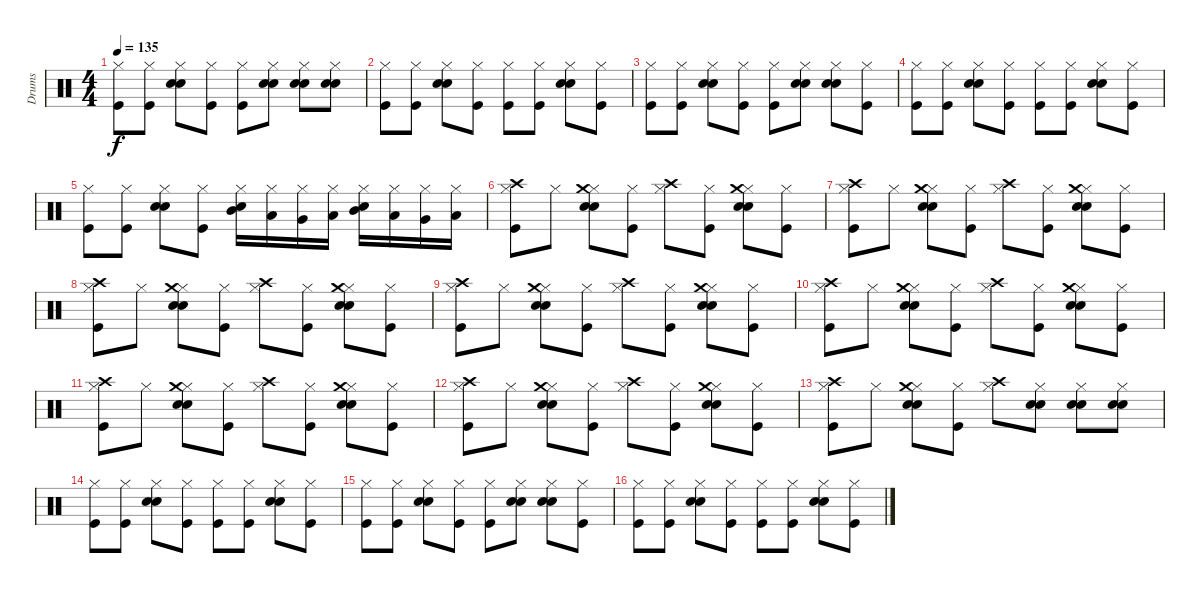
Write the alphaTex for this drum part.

\track ("Drums" "Drums") {instrument percussion}
\staff {score}
\articulation defaults
\ts (4 4)
\tempo 135
\clef neutral
\ks c
("Hi-Hat (closed)" "Kick (hit)").8{dy f} ("Hi-Hat (closed)" "Kick (hit)").8 ("Hi-Hat (closed)" "Hand Clap (hit)" "Electric Snare (hit)").8 ("Hi-Hat (closed)" "Kick (hit)").8 ("Hi-Hat (closed)" "Kick (hit)").8 ("Hi-Hat (closed)" "Hand Clap (hit)" "Snare (hit) 2").8 ("Hi-Hat (closed)" "Hand Clap (hit)" "Snare (hit) 2").8 ("Hi-Hat (closed)" "Hand Clap (hit)" "Snare (hit) 2").8 |
("Hi-Hat (closed)" "Kick (hit)").8 ("Hi-Hat (closed)" "Kick (hit)").8 ("Hi-Hat (closed)" "Hand Clap (hit)" "Electric Snare (hit)").8 ("Hi-Hat (closed)" "Kick (hit)").8 ("Hi-Hat (closed)" "Kick (hit)").8 ("Hi-Hat (closed)" "Kick (hit)").8 ("Hi-Hat (closed)" "Hand Clap (hit)" "Electric Snare (hit)").8 ("Hi-Hat (closed)" "Kick (hit)").8 |
("Hi-Hat (closed)" "Kick (hit)").8 ("Hi-Hat (closed)" "Kick (hit)").8 ("Hi-Hat (closed)" "Hand Clap (hit)" "Electric Snare (hit)").8 ("Hi-Hat (closed)" "Kick (hit)").8 ("Hi-Hat (closed)" "Kick (hit)").8 ("Hi-Hat (closed)" "Hand Clap (hit)" "Snare (hit) 2").8 ("Hi-Hat (closed)" "Hand Clap (hit)" "Snare (hit) 2").8 ("Hi-Hat (closed)" "Kick (hit)").8 |
("Hi-Hat (closed)" "Kick (hit)").8 ("Hi-Hat (closed)" "Kick (hit)").8 ("Hi-Hat (closed)" "Hand Clap (hit)" "Electric Snare (hit)").8 ("Hi-Hat (closed)" "Kick (hit)").8 ("Hi-Hat (closed)" "Kick (hit)").8 ("Hi-Hat (closed)" "Kick (hit)").8 ("Hi-Hat (closed)" "Hand Clap (hit)" "Electric Snare (hit)").8 ("Hi-Hat (closed)" "Kick (hit)").8 |
("Hi-Hat (closed)" "Kick (hit)").8 ("Hi-Hat (closed)" "Kick (hit)").8 ("Hi-Hat (closed)" "Hand Clap (hit)" "Electric Snare (hit)").8 ("Hi-Hat (closed)" "Kick (hit)").8 ("Hi-Hat (closed)" "Mid Tom (hit)" "Snare (hit) 2").16 ("Hi-Hat (closed)" "Low Tom (hit)").16 ("Hi-Hat (closed)" "Very Low Tom (hit)").16 ("Hi-Hat (closed)" "Low Floor Tom (hit)").16 ("Hi-Hat (closed)" "Mid Tom (hit)" "Snare (hit) 2").16 ("Hi-Hat (closed)" "Low Tom (hit)").16 ("Hi-Hat (closed)" "Very Low Tom (hit)").16 ("Hi-Hat (closed)" "Low Floor Tom (hit)").16 |
("Hi-Hat (closed)" "Crash high (hit)" "Kick (hit)").8 "Hi-Hat (closed)".8 ("Hi-Hat (closed)" "Crash medium (hit)" "Hand Clap (hit)" "Snare (hit) 2").8 ("Hi-Hat (closed)" "Kick (hit)").8 ("Hi-Hat (closed)" "Crash high (hit)").8 ("Hi-Hat (closed)" "Kick (hit)").8 ("Hi-Hat (closed)" "Crash medium (hit)" "Hand Clap (hit)" "Snare (hit) 2").8 ("Hi-Hat (closed)" "Kick (hit)").8 |
("Hi-Hat (closed)" "Crash high (hit)" "Kick (hit)").8 "Hi-Hat (closed)".8 ("Hi-Hat (closed)" "Crash medium (hit)" "Hand Clap (hit)" "Snare (hit) 2").8 ("Hi-Hat (closed)" "Kick (hit)").8 ("Hi-Hat (closed)" "Crash high (hit)").8 ("Hi-Hat (closed)" "Kick (hit)").8 ("Hi-Hat (closed)" "Crash medium (hit)" "Hand Clap (hit)" "Snare (hit) 2").8 ("Hi-Hat (closed)" "Kick (hit)").8 |
("Hi-Hat (closed)" "Crash high (hit)" "Kick (hit)").8 "Hi-Hat (closed)".8 ("Hi-Hat (closed)" "Crash medium (hit)" "Hand Clap (hit)" "Snare (hit) 2").8 ("Hi-Hat (closed)" "Kick (hit)").8 ("Hi-Hat (closed)" "Crash high (hit)").8 ("Hi-Hat (closed)" "Kick (hit)").8 ("Hi-Hat (closed)" "Crash medium (hit)" "Hand Clap (hit)" "Snare (hit) 2").8 ("Hi-Hat (closed)" "Kick (hit)").8 |
("Hi-Hat (closed)" "Crash high (hit)" "Kick (hit)").8 "Hi-Hat (closed)".8 ("Hi-Hat (closed)" "Crash medium (hit)" "Hand Clap (hit)" "Snare (hit) 2").8 ("Hi-Hat (closed)" "Kick (hit)").8 ("Hi-Hat (closed)" "Crash high (hit)").8 ("Hi-Hat (closed)" "Kick (hit)").8 ("Hi-Hat (closed)" "Crash medium (hit)" "Hand Clap (hit)" "Snare (hit) 2").8 ("Hi-Hat (closed)" "Kick (hit)").8 |
("Hi-Hat (closed)" "Crash high (hit)" "Kick (hit)").8 "Hi-Hat (closed)".8 ("Hi-Hat (closed)" "Crash medium (hit)" "Hand Clap (hit)" "Snare (hit) 2").8 ("Hi-Hat (closed)" "Kick (hit)").8 ("Hi-Hat (closed)" "Crash high (hit)").8 ("Hi-Hat (closed)" "Kick (hit)").8 ("Hi-Hat (closed)" "Crash medium (hit)" "Hand Clap (hit)" "Snare (hit) 2").8 ("Hi-Hat (closed)" "Kick (hit)").8 |
("Hi-Hat (closed)" "Crash high (hit)" "Kick (hit)").8 "Hi-Hat (closed)".8 ("Hi-Hat (closed)" "Crash medium (hit)" "Hand Clap (hit)" "Snare (hit) 2").8 ("Hi-Hat (closed)" "Kick (hit)").8 ("Hi-Hat (closed)" "Crash high (hit)").8 ("Hi-Hat (closed)" "Kick (hit)").8 ("Hi-Hat (closed)" "Crash medium (hit)" "Hand Clap (hit)" "Snare (hit) 2").8 ("Hi-Hat (closed)" "Kick (hit)").8 |
("Hi-Hat (closed)" "Crash high (hit)" "Kick (hit)").8 "Hi-Hat (closed)".8 ("Hi-Hat (closed)" "Crash medium (hit)" "Hand Clap (hit)" "Snare (hit) 2").8 ("Hi-Hat (closed)" "Kick (hit)").8 ("Hi-Hat (closed)" "Crash high (hit)").8 ("Hi-Hat (closed)" "Kick (hit)").8 ("Hi-Hat (closed)" "Crash medium (hit)" "Hand Clap (hit)" "Snare (hit) 2").8 ("Hi-Hat (closed)" "Kick (hit)").8 |
("Hi-Hat (closed)" "Crash high (hit)" "Kick (hit)").8 "Hi-Hat (closed)".8 ("Hi-Hat (closed)" "Crash medium (hit)" "Hand Clap (hit)" "Snare (hit) 2").8 ("Hi-Hat (closed)" "Kick (hit)").8 ("Hi-Hat (closed)" "Crash high (hit)").8 ("Hi-Hat (closed)" "Hand Clap (hit)" "Snare (hit) 2").8 ("Hi-Hat (closed)" "Hand Clap (hit)" "Snare (hit) 2").8 ("Hi-Hat (closed)" "Hand Clap (hit)" "Snare (hit) 2").8 |
("Hi-Hat (closed)" "Kick (hit)").8 ("Hi-Hat (closed)" "Kick (hit)").8 ("Hi-Hat (closed)" "Hand Clap (hit)" "Electric Snare (hit)").8 ("Hi-Hat (closed)" "Kick (hit)").8 ("Hi-Hat (closed)" "Kick (hit)").8 ("Hi-Hat (closed)" "Kick (hit)").8 ("Hi-Hat (closed)" "Hand Clap (hit)" "Electric Snare (hit)").8 ("Hi-Hat (closed)" "Kick (hit)").8 |
("Hi-Hat (closed)" "Kick (hit)").8 ("Hi-Hat (closed)" "Kick (hit)").8 ("Hi-Hat (closed)" "Hand Clap (hit)" "Electric Snare (hit)").8 ("Hi-Hat (closed)" "Kick (hit)").8 ("Hi-Hat (closed)" "Kick (hit)").8 ("Hi-Hat (closed)" "Hand Clap (hit)" "Snare (hit) 2").8 ("Hi-Hat (closed)" "Hand Clap (hit)" "Snare (hit) 2").8 ("Hi-Hat (closed)" "Kick (hit)").8 |
("Hi-Hat (closed)" "Kick (hit)").8 ("Hi-Hat (closed)" "Kick (hit)").8 ("Hi-Hat (closed)" "Hand Clap (hit)" "Electric Snare (hit)").8 ("Hi-Hat (closed)" "Kick (hit)").8 ("Hi-Hat (closed)" "Kick (hit)").8 ("Hi-Hat (closed)" "Kick (hit)").8 ("Hi-Hat (closed)" "Hand Clap (hit)" "Electric Snare (hit)").8 ("Hi-Hat (closed)" "Kick (hit)").8
